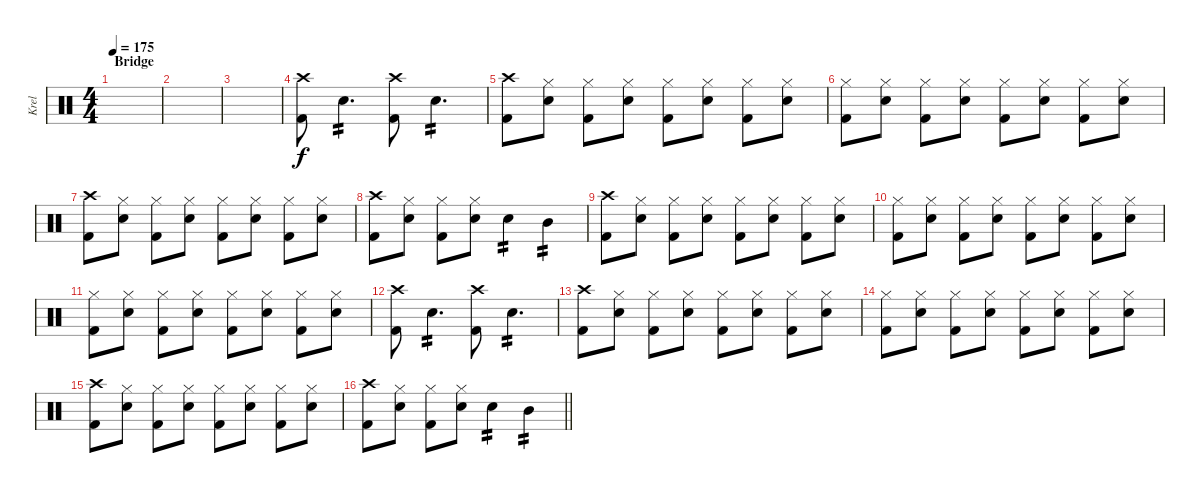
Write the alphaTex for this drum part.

\track ("Krel" "Krel") {instrument percussion}
\staff {score}
\articulation defaults
\ts (4 4)
\section ("" "Bridge")
\tempo 175
\clef neutral
\ks c
|
|
|
("Crash high (hit)" "Kick (hit) 2").8 "Snare (hit) 2".4{d tp 2} ("Crash high (hit)" "Kick (hit) 2").8 "Snare (hit) 2".4{d tp 2} |
("Crash high (hit)" "Kick (hit) 2").8 ("Hi-Hat (closed)" "Snare (hit) 2").8 ("Hi-Hat (closed)" "Kick (hit) 2").8 ("Hi-Hat (closed)" "Snare (hit) 2").8 ("Hi-Hat (closed)" "Kick (hit) 2").8 ("Hi-Hat (closed)" "Snare (hit) 2").8 ("Hi-Hat (closed)" "Kick (hit) 2").8 ("Hi-Hat (closed)" "Snare (hit) 2").8 |
("Hi-Hat (closed)" "Kick (hit) 2").8 ("Hi-Hat (closed)" "Snare (hit) 2").8 ("Hi-Hat (closed)" "Kick (hit) 2").8 ("Hi-Hat (closed)" "Snare (hit) 2").8 ("Hi-Hat (closed)" "Kick (hit) 2").8 ("Hi-Hat (closed)" "Snare (hit) 2").8 ("Hi-Hat (closed)" "Kick (hit) 2").8 ("Hi-Hat (closed)" "Snare (hit) 2").8 |
("Crash high (hit)" "Kick (hit) 2").8 ("Hi-Hat (closed)" "Snare (hit) 2").8 ("Hi-Hat (closed)" "Kick (hit) 2").8 ("Hi-Hat (closed)" "Snare (hit) 2").8 ("Hi-Hat (closed)" "Kick (hit) 2").8 ("Hi-Hat (closed)" "Snare (hit) 2").8 ("Hi-Hat (closed)" "Kick (hit) 2").8 ("Hi-Hat (closed)" "Snare (hit) 2").8 |
("Crash high (hit)" "Kick (hit) 2").8 ("Hi-Hat (closed)" "Snare (hit) 2").8 ("Hi-Hat (closed)" "Kick (hit) 2").8 ("Hi-Hat (closed)" "Snare (hit) 2").8 "Snare (hit) 2".4{tp 2} "Mid Tom (hit)".4{tp 2} |
("Crash high (hit)" "Kick (hit) 2").8 ("Hi-Hat (closed)" "Snare (hit) 2").8 ("Hi-Hat (closed)" "Kick (hit) 2").8 ("Hi-Hat (closed)" "Snare (hit) 2").8 ("Hi-Hat (closed)" "Kick (hit) 2").8 ("Hi-Hat (closed)" "Snare (hit) 2").8 ("Hi-Hat (closed)" "Kick (hit) 2").8 ("Hi-Hat (closed)" "Snare (hit) 2").8 |
("Hi-Hat (closed)" "Kick (hit) 2").8 ("Hi-Hat (closed)" "Snare (hit) 2").8 ("Hi-Hat (closed)" "Kick (hit) 2").8 ("Hi-Hat (closed)" "Snare (hit) 2").8 ("Hi-Hat (closed)" "Kick (hit) 2").8 ("Hi-Hat (closed)" "Snare (hit) 2").8 ("Hi-Hat (closed)" "Kick (hit) 2").8 ("Hi-Hat (closed)" "Snare (hit) 2").8 |
("Hi-Hat (closed)" "Kick (hit) 2").8 ("Hi-Hat (closed)" "Snare (hit) 2").8 ("Hi-Hat (closed)" "Kick (hit) 2").8 ("Hi-Hat (closed)" "Snare (hit) 2").8 ("Hi-Hat (closed)" "Kick (hit) 2").8 ("Hi-Hat (closed)" "Snare (hit) 2").8 ("Hi-Hat (closed)" "Kick (hit) 2").8 ("Hi-Hat (closed)" "Snare (hit) 2").8 |
("Crash high (hit)" "Kick (hit) 2").8 "Snare (hit) 2".4{d tp 2} ("Crash high (hit)" "Kick (hit) 2").8 "Snare (hit) 2".4{d tp 2} |
("Crash high (hit)" "Kick (hit) 2").8 ("Hi-Hat (closed)" "Snare (hit) 2").8 ("Hi-Hat (closed)" "Kick (hit) 2").8 ("Hi-Hat (closed)" "Snare (hit) 2").8 ("Hi-Hat (closed)" "Kick (hit) 2").8 ("Hi-Hat (closed)" "Snare (hit) 2").8 ("Hi-Hat (closed)" "Kick (hit) 2").8 ("Hi-Hat (closed)" "Snare (hit) 2").8 |
("Hi-Hat (closed)" "Kick (hit) 2").8 ("Hi-Hat (closed)" "Snare (hit) 2").8 ("Hi-Hat (closed)" "Kick (hit) 2").8 ("Hi-Hat (closed)" "Snare (hit) 2").8 ("Hi-Hat (closed)" "Kick (hit) 2").8 ("Hi-Hat (closed)" "Snare (hit) 2").8 ("Hi-Hat (closed)" "Kick (hit) 2").8 ("Hi-Hat (closed)" "Snare (hit) 2").8 |
("Crash high (hit)" "Kick (hit) 2").8 ("Hi-Hat (closed)" "Snare (hit) 2").8 ("Hi-Hat (closed)" "Kick (hit) 2").8 ("Hi-Hat (closed)" "Snare (hit) 2").8 ("Hi-Hat (closed)" "Kick (hit) 2").8 ("Hi-Hat (closed)" "Snare (hit) 2").8 ("Hi-Hat (closed)" "Kick (hit) 2").8 ("Hi-Hat (closed)" "Snare (hit) 2").8 |
\barLineRight lightlight
("Crash high (hit)" "Kick (hit) 2").8 ("Hi-Hat (closed)" "Snare (hit) 2").8 ("Hi-Hat (closed)" "Kick (hit) 2").8 ("Hi-Hat (closed)" "Snare (hit) 2").8 "Snare (hit) 2".4{tp 2} "Mid Tom (hit)".4{tp 2}
